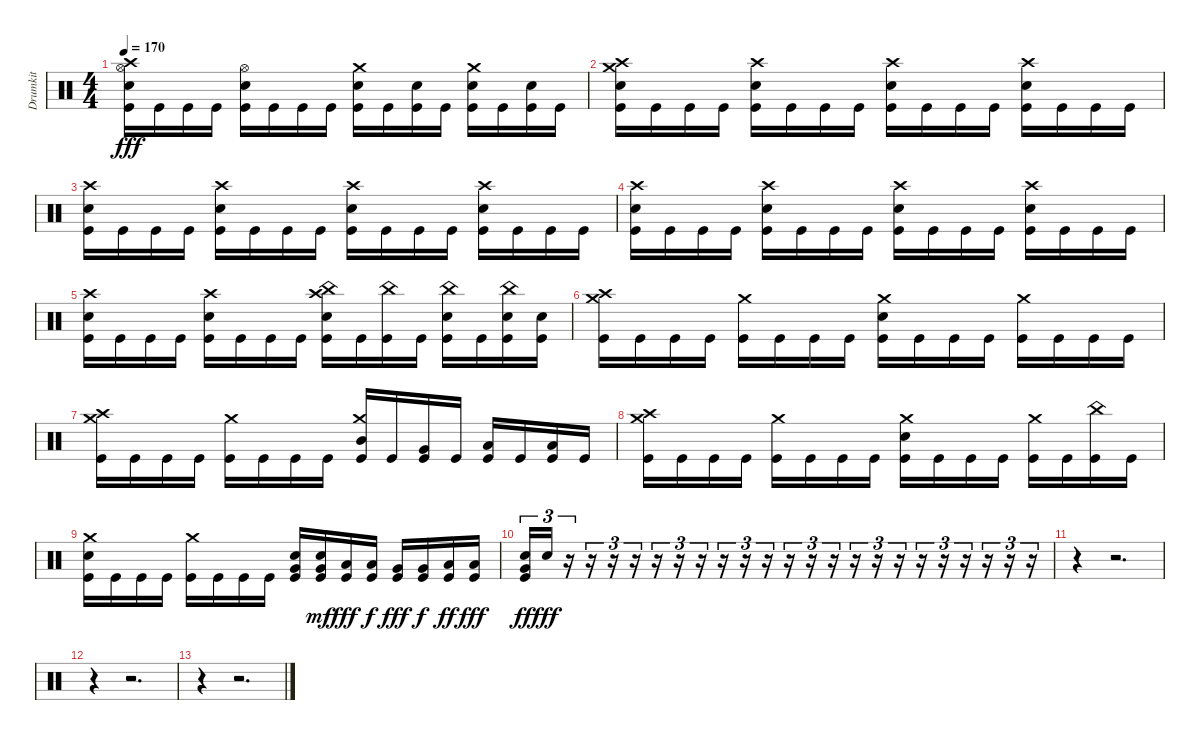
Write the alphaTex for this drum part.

\track ("Drumkit" "Drumkit") {instrument percussion}
\staff {score}
\articulation defaults
\ts (4 4)
\tempo 170
\clef neutral
\ks c
("Kick (hit)" "Snare (hit) 2" "Crash high (hit)" "Hi-Hat (open)").16{dy fff} "Kick (hit)".16 "Kick (hit)".16 "Kick (hit)".16 ("Kick (hit)" "Snare (hit) 2" "Hi-Hat (open)").16 "Kick (hit)".16 "Kick (hit)".16 "Kick (hit)".16 ("Kick (hit)" "Snare (hit) 2" "Crash medium (hit)").16 "Kick (hit)".16 ("Kick (hit)" "Snare (hit) 2").16 "Kick (hit)".16 ("Kick (hit)" "Snare (hit) 2" "Crash medium (hit)").16 "Kick (hit)".16 ("Kick (hit)" "Snare (hit) 2").16 "Kick (hit)".16 |
("Kick (hit)" "Snare (hit) 2" "Crash medium (hit)" "Crash high (hit)").16 "Kick (hit)".16 "Kick (hit)".16 "Kick (hit)".16 ("Kick (hit)" "Snare (hit) 2" "Crash high (hit)").16 "Kick (hit)".16 "Kick (hit)".16 "Kick (hit)".16 ("Kick (hit)" "Snare (hit) 2" "Crash high (hit)").16 "Kick (hit)".16 "Kick (hit)".16 "Kick (hit)".16 ("Kick (hit)" "Snare (hit) 2" "Crash high (hit)").16 "Kick (hit)".16 "Kick (hit)".16 "Kick (hit)".16 |
("Kick (hit)" "Snare (hit) 2" "Crash high (hit)").16 "Kick (hit)".16 "Kick (hit)".16 "Kick (hit)".16 ("Kick (hit)" "Snare (hit) 2" "Crash high (hit)").16 "Kick (hit)".16 "Kick (hit)".16 "Kick (hit)".16 ("Kick (hit)" "Snare (hit) 2" "Crash high (hit)").16 "Kick (hit)".16 "Kick (hit)".16 "Kick (hit)".16 ("Kick (hit)" "Snare (hit) 2" "Crash high (hit)").16 "Kick (hit)".16 "Kick (hit)".16 "Kick (hit)".16 |
("Kick (hit)" "Snare (hit) 2" "Crash high (hit)").16 "Kick (hit)".16 "Kick (hit)".16 "Kick (hit)".16 ("Kick (hit)" "Snare (hit) 2" "Crash high (hit)").16 "Kick (hit)".16 "Kick (hit)".16 "Kick (hit)".16 ("Kick (hit)" "Snare (hit) 2" "Crash high (hit)").16 "Kick (hit)".16 "Kick (hit)".16 "Kick (hit)".16 ("Kick (hit)" "Snare (hit) 2" "Crash high (hit)").16 "Kick (hit)".16 "Kick (hit)".16 "Kick (hit)".16 |
("Kick (hit)" "Snare (hit) 2" "Crash high (hit)").16 "Kick (hit)".16 "Kick (hit)".16 "Kick (hit)".16 ("Kick (hit)" "Snare (hit) 2" "Crash high (hit)").16 "Kick (hit)".16 "Kick (hit)".16 "Kick (hit)".16 ("Kick (hit)" "Snare (hit) 2" "Crash high (hit)" "China (hit)").16 "Kick (hit)".16 ("Kick (hit)" "China (hit)").16 "Kick (hit)".16 ("Kick (hit)" "Snare (hit) 2" "China (hit)").16 "Kick (hit)".16 ("Kick (hit)" "Snare (hit) 2" "China (hit)").16 ("Kick (hit)" "Snare (hit) 2").16 |
("Kick (hit)" "Crash medium (hit)" "Crash high (hit)").16 "Kick (hit)".16 "Kick (hit)".16 "Kick (hit)".16 ("Kick (hit)" "Crash medium (hit)").16 "Kick (hit)".16 "Kick (hit)".16 "Kick (hit)".16 ("Kick (hit)" "Snare (hit) 2" "Crash medium (hit)").16 "Kick (hit)".16 "Kick (hit)".16 "Kick (hit)".16 ("Kick (hit)" "Crash medium (hit)").16 "Kick (hit)".16 "Kick (hit)".16 "Kick (hit)".16 |
("Kick (hit)" "Crash medium (hit)" "Crash high (hit)").16 "Kick (hit)".16 "Kick (hit)".16 "Kick (hit)".16 ("Kick (hit)" "Crash medium (hit)").16 "Kick (hit)".16 "Kick (hit)".16 "Kick (hit)".16 ("Kick (hit)" "Mid Tom (hit)" "Crash medium (hit)").16 "Kick (hit)".16 ("Kick (hit)" "Very Low Tom (hit)").16 "Kick (hit)".16 ("Kick (hit)" "Low Tom (hit)").16 "Kick (hit)".16 ("Kick (hit)" "Low Floor Tom (hit)").16 "Kick (hit)".16 |
("Kick (hit)" "Crash medium (hit)" "Crash high (hit)").16 "Kick (hit)".16 "Kick (hit)".16 "Kick (hit)".16 ("Kick (hit)" "Crash medium (hit)").16 "Kick (hit)".16 "Kick (hit)".16 "Kick (hit)".16 ("Kick (hit)" "Snare (hit) 2" "Crash medium (hit)").16 "Kick (hit)".16 "Kick (hit)".16 "Kick (hit)".16 ("Kick (hit)" "Crash medium (hit)").16 "Kick (hit)".16 ("Kick (hit)" "China (hit)").16 "Kick (hit)".16 |
("Kick (hit)" "Snare (hit) 2" "Crash medium (hit)").16 "Kick (hit)".16 "Kick (hit)".16 "Kick (hit)".16 ("Kick (hit)" "Crash medium (hit)").16 "Kick (hit)".16 "Kick (hit)".16 "Kick (hit)".16 ("Kick (hit)" "Very Low Tom (hit)" "Snare (hit) 2").16 ("Snare (hit) 2" "Very Low Tom (hit)" "Kick (hit)").16{dy mf} ("Kick (hit)" "Low Tom (hit)").16{dy fff} ("Low Tom (hit)" "Kick (hit)").16{dy f} ("Kick (hit)" "Very Low Tom (hit)").16{dy fff} ("Very Low Tom (hit)" "Kick (hit)").16{dy f} ("Low Floor Tom (hit)" "Kick (hit)").16{dy ff} ("Kick (hit)" "Low Floor Tom (hit)").16{dy fff} |
("Kick (hit)" "Very Low Tom (hit)" "Snare (hit) 2").16{tu (3 2) dy ff} "Snare (hit) 2".16{tu (3 2) dy fff} r.16{tu (3 2)} r.16{tu (3 2)} r.16{tu (3 2)} r.16{tu (3 2)} r.16{tu (3 2)} r.16{tu (3 2)} r.16{tu (3 2)} r.16{tu (3 2)} r.16{tu (3 2)} r.16{tu (3 2)} r.16{tu (3 2)} r.16{tu (3 2)} r.16{tu (3 2)} r.16{tu (3 2)} r.16{tu (3 2)} r.16{tu (3 2)} r.16{tu (3 2)} r.16{tu (3 2)} r.16{tu (3 2)} r.16{tu (3 2)} r.16{tu (3 2)} r.16{tu (3 2)} |
r.4 r.2{d} |
r.4 r.2{d} |
r.4 r.2{d}
